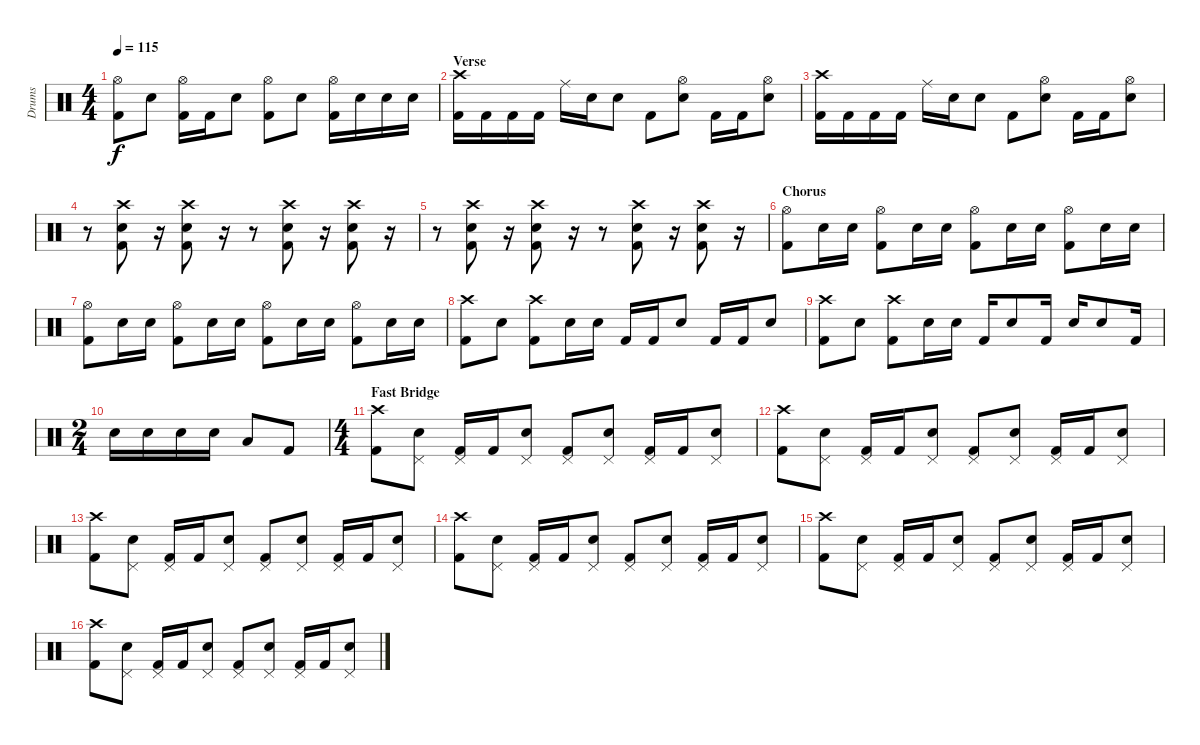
\track ("Drums" "Drums") {instrument percussion}
\staff {score}
\articulation defaults
\ts (4 4)
\tempo 115
\clef neutral
\ks c
("Hi-Hat (open)" "Kick (hit) 2").8{dy f} "Electric Snare (hit)".8 ("Hi-Hat (open)" "Kick (hit) 2").16 "Kick (hit) 2".16 "Electric Snare (hit)".8 ("Hi-Hat (open)" "Kick (hit) 2").8 "Electric Snare (hit)".8 ("Hi-Hat (open)" "Kick (hit) 2").16 "Electric Snare (hit)".16 "Electric Snare (hit)".16 "Electric Snare (hit)".16 |
\section ("" "Verse")
("Crash high (hit)" "Kick (hit) 2").16 "Kick (hit) 2".16 "Kick (hit) 2".16 "Kick (hit) 2".16 "Ride (middle)".16 "Electric Snare (hit)".16 "Snare (hit) 2".8 "Kick (hit) 2".8 ("Hi-Hat (open)" "Electric Snare (hit)").8 "Kick (hit) 2".16 "Kick (hit) 2".16 ("Hi-Hat (open)" "Electric Snare (hit)").8 |
("Crash high (hit)" "Kick (hit) 2").16 "Kick (hit) 2".16 "Kick (hit) 2".16 "Kick (hit) 2".16 "Ride (middle)".16 "Electric Snare (hit)".16 "Snare (hit) 2".8 "Kick (hit) 2".8 ("Hi-Hat (open)" "Electric Snare (hit)").8 "Kick (hit) 2".16 "Kick (hit) 2".16 ("Hi-Hat (open)" "Electric Snare (hit)").8 |
r.8 ("Crash high (hit)" "Electric Snare (hit)" "Kick (hit) 2").8 r.16 ("Crash high (hit)" "Electric Snare (hit)" "Kick (hit) 2").8 r.16 r.8 ("Crash high (hit)" "Electric Snare (hit)" "Kick (hit) 2").8 r.16 ("Crash high (hit)" "Electric Snare (hit)" "Kick (hit) 2").8 r.16 |
r.8 ("Crash high (hit)" "Electric Snare (hit)" "Kick (hit) 2").8 r.16 ("Crash high (hit)" "Electric Snare (hit)" "Kick (hit) 2").8 r.16 r.8 ("Crash high (hit)" "Electric Snare (hit)" "Kick (hit) 2").8 r.16 ("Crash high (hit)" "Electric Snare (hit)" "Kick (hit) 2").8 r.16 |
\section ("" "Chorus")
("Hi-Hat (open)" "Kick (hit) 2").8 "Electric Snare (hit)".16 "Electric Snare (hit)".16 ("Hi-Hat (open)" "Kick (hit) 2").8 "Electric Snare (hit)".16 "Electric Snare (hit)".16 ("Hi-Hat (open)" "Kick (hit) 2").8 "Electric Snare (hit)".16 "Electric Snare (hit)".16 ("Hi-Hat (open)" "Kick (hit) 2").8 "Electric Snare (hit)".16 "Electric Snare (hit)".16 |
("Hi-Hat (open)" "Kick (hit) 2").8 "Electric Snare (hit)".16 "Electric Snare (hit)".16 ("Hi-Hat (open)" "Kick (hit) 2").8 "Electric Snare (hit)".16 "Electric Snare (hit)".16 ("Hi-Hat (open)" "Kick (hit) 2").8 "Electric Snare (hit)".16 "Electric Snare (hit)".16 ("Hi-Hat (open)" "Kick (hit) 2").8 "Electric Snare (hit)".16 "Electric Snare (hit)".16 |
("Crash high (hit)" "Kick (hit) 2").8 "Electric Snare (hit)".8 ("Crash high (hit)" "Kick (hit) 2").8 "Electric Snare (hit)".16 "Electric Snare (hit)".16 "Kick (hit) 2".16 "Kick (hit) 2".16 "Electric Snare (hit)".8 "Kick (hit) 2".16 "Kick (hit) 2".16 "Electric Snare (hit)".8 |
("Crash high (hit)" "Kick (hit) 2").8 "Electric Snare (hit)".8 ("Crash high (hit)" "Kick (hit) 2").8 "Electric Snare (hit)".16 "Electric Snare (hit)".16 "Kick (hit) 2".16 "Electric Snare (hit)".8 "Kick (hit) 2".16 "Electric Snare (hit)".16 "Electric Snare (hit)".8 "Kick (hit) 2".16 |
\ts (2 4)
"Electric Snare (hit)".16 "Electric Snare (hit)".16 "Electric Snare (hit)".16 "Electric Snare (hit)".16 "Low Floor Tom (hit)".8 "Kick (hit) 2".8 |
\ts (4 4)
\section ("" "Fast Bridge")
("Crash high (hit)" "Kick (hit) 2").8 ("Pedal Hi-Hat (hit)" "Electric Snare (hit)").8 ("Pedal Hi-Hat (hit)" "Kick (hit) 2").16 "Kick (hit) 2".16 ("Pedal Hi-Hat (hit)" "Electric Snare (hit)").8 ("Pedal Hi-Hat (hit)" "Kick (hit) 2").8 ("Pedal Hi-Hat (hit)" "Electric Snare (hit)").8 ("Pedal Hi-Hat (hit)" "Kick (hit) 2").16 "Kick (hit) 2".16 ("Pedal Hi-Hat (hit)" "Electric Snare (hit)").8 |
("Crash high (hit)" "Kick (hit) 2").8 ("Pedal Hi-Hat (hit)" "Electric Snare (hit)").8 ("Pedal Hi-Hat (hit)" "Kick (hit) 2").16 "Kick (hit) 2".16 ("Pedal Hi-Hat (hit)" "Electric Snare (hit)").8 ("Pedal Hi-Hat (hit)" "Kick (hit) 2").8 ("Pedal Hi-Hat (hit)" "Electric Snare (hit)").8 ("Pedal Hi-Hat (hit)" "Kick (hit) 2").16 "Kick (hit) 2".16 ("Pedal Hi-Hat (hit)" "Electric Snare (hit)").8 |
("Crash high (hit)" "Kick (hit) 2").8 ("Pedal Hi-Hat (hit)" "Electric Snare (hit)").8 ("Pedal Hi-Hat (hit)" "Kick (hit) 2").16 "Kick (hit) 2".16 ("Pedal Hi-Hat (hit)" "Electric Snare (hit)").8 ("Pedal Hi-Hat (hit)" "Kick (hit) 2").8 ("Pedal Hi-Hat (hit)" "Electric Snare (hit)").8 ("Pedal Hi-Hat (hit)" "Kick (hit) 2").16 "Kick (hit) 2".16 ("Pedal Hi-Hat (hit)" "Electric Snare (hit)").8 |
("Crash high (hit)" "Kick (hit) 2").8 ("Pedal Hi-Hat (hit)" "Electric Snare (hit)").8 ("Pedal Hi-Hat (hit)" "Kick (hit) 2").16 "Kick (hit) 2".16 ("Pedal Hi-Hat (hit)" "Electric Snare (hit)").8 ("Pedal Hi-Hat (hit)" "Kick (hit) 2").8 ("Pedal Hi-Hat (hit)" "Electric Snare (hit)").8 ("Pedal Hi-Hat (hit)" "Kick (hit) 2").16 "Kick (hit) 2".16 ("Pedal Hi-Hat (hit)" "Electric Snare (hit)").8 |
("Crash high (hit)" "Kick (hit) 2").8 ("Pedal Hi-Hat (hit)" "Electric Snare (hit)").8 ("Pedal Hi-Hat (hit)" "Kick (hit) 2").16 "Kick (hit) 2".16 ("Pedal Hi-Hat (hit)" "Electric Snare (hit)").8 ("Pedal Hi-Hat (hit)" "Kick (hit) 2").8 ("Pedal Hi-Hat (hit)" "Electric Snare (hit)").8 ("Pedal Hi-Hat (hit)" "Kick (hit) 2").16 "Kick (hit) 2".16 ("Pedal Hi-Hat (hit)" "Electric Snare (hit)").8 |
("Crash high (hit)" "Kick (hit) 2").8 ("Pedal Hi-Hat (hit)" "Electric Snare (hit)").8 ("Pedal Hi-Hat (hit)" "Kick (hit) 2").16 "Kick (hit) 2".16 ("Pedal Hi-Hat (hit)" "Electric Snare (hit)").8 ("Pedal Hi-Hat (hit)" "Kick (hit) 2").8 ("Pedal Hi-Hat (hit)" "Electric Snare (hit)").8 ("Pedal Hi-Hat (hit)" "Kick (hit) 2").16 "Kick (hit) 2".16 ("Pedal Hi-Hat (hit)" "Electric Snare (hit)").8
